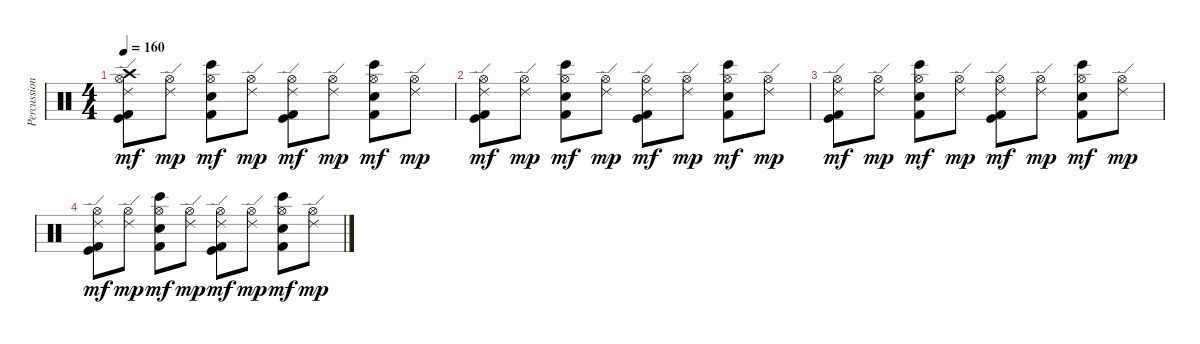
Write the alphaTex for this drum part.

\track ("Percussion" "Percussion") {instrument percussion}
\staff {score}
\articulation defaults
\ts (4 4)
\tempo 160
\clef neutral
\ks c
("Crash high (hit)" "Ride (edge) 2" "Hi-Hat (open)" "Kick (hit)" "Kick (hit) 2").8{dy mf} ("Ride (edge) 2" "Hi-Hat (open)").8{dy mp} ("Bongo High (hit)" "Hi-Hat (open)" "Hand Clap (hit)" "Kick (hit) 2").8{dy mf} ("Ride (edge) 2" "Hi-Hat (open)").8{dy mp} ("Ride (edge) 2" "Hi-Hat (open)" "Kick (hit)" "Kick (hit) 2").8{dy mf} ("Ride (edge) 2" "Hi-Hat (open)").8{dy mp} ("Bongo High (hit)" "Hi-Hat (open)" "Hand Clap (hit)" "Kick (hit) 2").8{dy mf} ("Ride (edge) 2" "Hi-Hat (open)").8{dy mp} |
("Ride (edge) 2" "Hi-Hat (open)" "Kick (hit)" "Kick (hit) 2").8{dy mf} ("Ride (edge) 2" "Hi-Hat (open)").8{dy mp} ("Bongo High (hit)" "Hi-Hat (open)" "Hand Clap (hit)" "Kick (hit) 2").8{dy mf} ("Ride (edge) 2" "Hi-Hat (open)").8{dy mp} ("Ride (edge) 2" "Hi-Hat (open)" "Kick (hit)" "Kick (hit) 2").8{dy mf} ("Ride (edge) 2" "Hi-Hat (open)").8{dy mp} ("Bongo High (hit)" "Hi-Hat (open)" "Hand Clap (hit)" "Kick (hit) 2").8{dy mf} ("Ride (edge) 2" "Hi-Hat (open)").8{dy mp} |
("Ride (edge) 2" "Hi-Hat (open)" "Kick (hit)" "Kick (hit) 2").8{dy mf} ("Ride (edge) 2" "Hi-Hat (open)").8{dy mp} ("Bongo High (hit)" "Hi-Hat (open)" "Hand Clap (hit)" "Kick (hit) 2").8{dy mf} ("Ride (edge) 2" "Hi-Hat (open)").8{dy mp} ("Ride (edge) 2" "Hi-Hat (open)" "Kick (hit)" "Kick (hit) 2").8{dy mf} ("Ride (edge) 2" "Hi-Hat (open)").8{dy mp} ("Bongo High (hit)" "Hi-Hat (open)" "Hand Clap (hit)" "Kick (hit) 2").8{dy mf} ("Ride (edge) 2" "Hi-Hat (open)").8{dy mp} |
("Ride (edge) 2" "Hi-Hat (open)" "Kick (hit)" "Kick (hit) 2").8{dy mf} ("Ride (edge) 2" "Hi-Hat (open)").8{dy mp} ("Bongo High (hit)" "Hi-Hat (open)" "Hand Clap (hit)" "Kick (hit) 2").8{dy mf} ("Ride (edge) 2" "Hi-Hat (open)").8{dy mp} ("Ride (edge) 2" "Hi-Hat (open)" "Kick (hit)" "Kick (hit) 2").8{dy mf} ("Ride (edge) 2" "Hi-Hat (open)").8{dy mp} ("Bongo High (hit)" "Hi-Hat (open)" "Hand Clap (hit)" "Kick (hit) 2").8{dy mf} ("Ride (edge) 2" "Hi-Hat (open)").8{dy mp}
